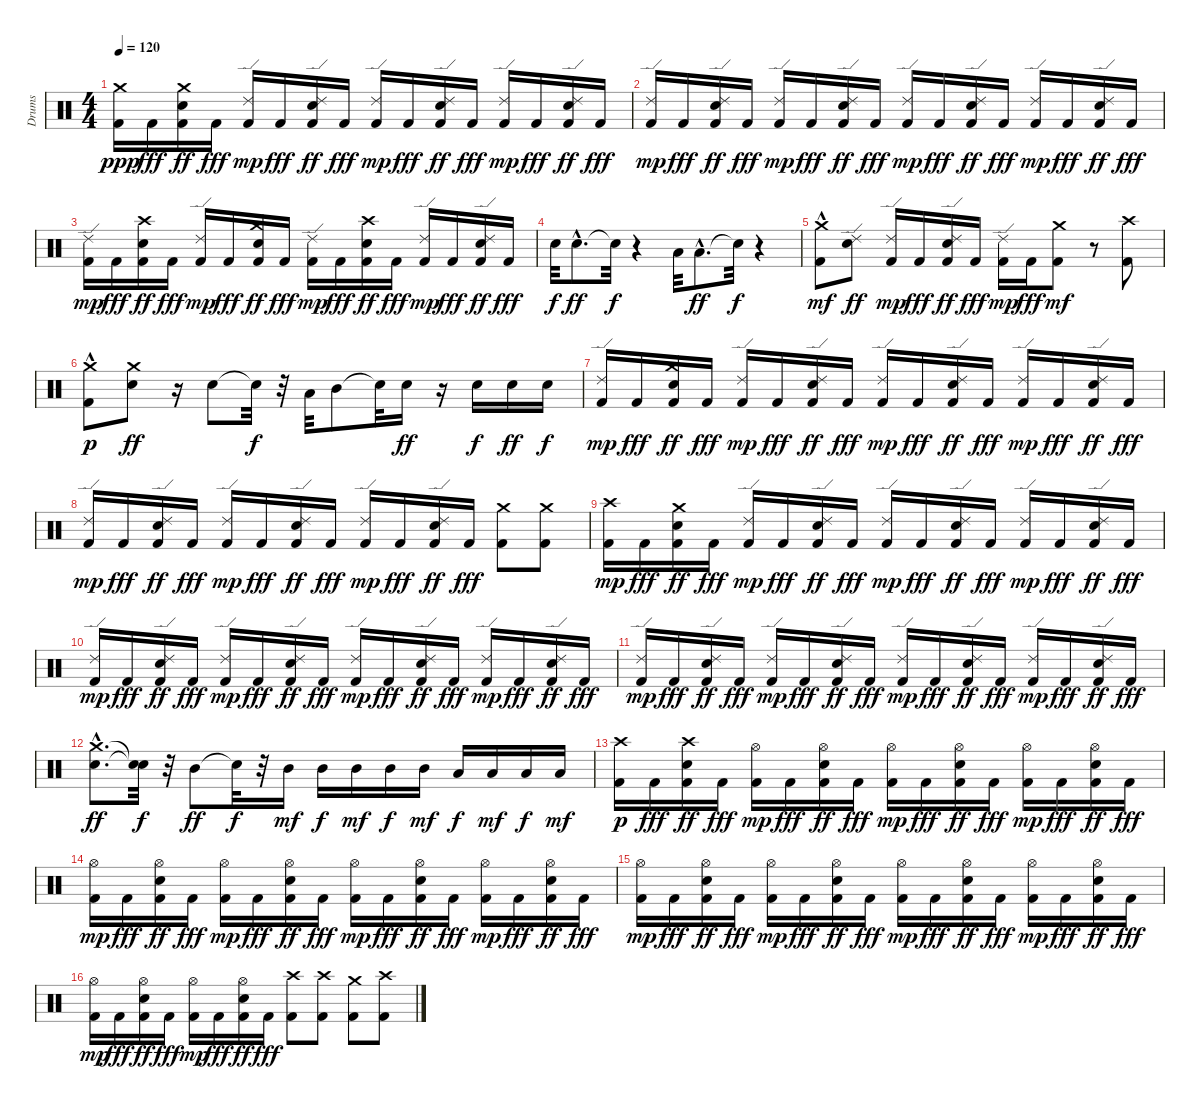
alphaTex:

\track ("Drums" "Drums") {instrument percussion}
\staff {score}
\articulation defaults
\ts (4 4)
\tempo 120
\clef neutral
\ks c
("Kick (hit) 2" "Crash medium (hit)").16{dy ppp} "Kick (hit) 2".16{dy fff} ("Kick (hit) 2" "Crash medium (hit)" "Snare (hit) 2").16{dy ff} "Kick (hit) 2".16{dy fff} ("Kick (hit) 2" "Ride (edge) 2").16{dy mp} "Kick (hit) 2".16{dy fff} ("Kick (hit) 2" "Ride (edge) 2" "Snare (hit) 2").16{dy ff} "Kick (hit) 2".16{dy fff} ("Kick (hit) 2" "Ride (edge) 2").16{dy mp} "Kick (hit) 2".16{dy fff} ("Kick (hit) 2" "Ride (edge) 2" "Snare (hit) 2").16{dy ff} "Kick (hit) 2".16{dy fff} ("Kick (hit) 2" "Ride (edge) 2").16{dy mp} "Kick (hit) 2".16{dy fff} ("Kick (hit) 2" "Ride (edge) 2" "Snare (hit) 2").16{dy ff} "Kick (hit) 2".16{dy fff} |
("Kick (hit) 2" "Ride (edge) 2").16{dy mp} "Kick (hit) 2".16{dy fff} ("Kick (hit) 2" "Ride (edge) 2" "Snare (hit) 2").16{dy ff} "Kick (hit) 2".16{dy fff} ("Kick (hit) 2" "Ride (edge) 2").16{dy mp} "Kick (hit) 2".16{dy fff} ("Kick (hit) 2" "Ride (edge) 2" "Snare (hit) 2").16{dy ff} "Kick (hit) 2".16{dy fff} ("Kick (hit) 2" "Ride (edge) 2").16{dy mp} "Kick (hit) 2".16{dy fff} ("Kick (hit) 2" "Ride (edge) 2" "Snare (hit) 2").16{dy ff} "Kick (hit) 2".16{dy fff} ("Kick (hit) 2" "Ride (edge) 2").16{dy mp} "Kick (hit) 2".16{dy fff} ("Kick (hit) 2" "Ride (edge) 2" "Snare (hit) 2").16{dy ff} "Kick (hit) 2".16{dy fff} |
("Kick (hit) 2" "Ride (edge) 2").16{dy mp} "Kick (hit) 2".16{dy fff} ("Kick (hit) 2" "Crash high (hit)" "Snare (hit) 2").16{dy ff} "Kick (hit) 2".16{dy fff} ("Kick (hit) 2" "Ride (edge) 2").16{dy mp} "Kick (hit) 2".16{dy fff} ("Kick (hit) 2" "Crash medium (hit)" "Snare (hit) 2").16{dy ff} "Kick (hit) 2".16{dy fff} ("Kick (hit) 2" "Ride (edge) 2").16{dy mp} "Kick (hit) 2".16{dy fff} ("Kick (hit) 2" "Crash high (hit)" "Snare (hit) 2").16{dy ff} "Kick (hit) 2".16{dy fff} ("Kick (hit) 2" "Ride (edge) 2").16{dy mp} "Kick (hit) 2".16{dy fff} ("Kick (hit) 2" "Ride (edge) 2" "Snare (hit) 2").16{dy ff} "Kick (hit) 2".16{dy fff} |
"Snare (hit) 2".32{dy f} "Snare (hit) 2"{hac}.8{d dy ff} "Snare (hit)"{t}.32{dy f} r.4 "Low Tom (hit)".32 "Low Tom (hit)"{hac}.8{d dy ff} "Snare (hit)"{t}.32{dy f} r.4 |
("Kick (hit) 2"{hac} "Crash medium (hit)").8{dy mf} ("Ride (edge) 2" "Snare (hit) 2").8{dy ff} ("Kick (hit) 2" "Ride (edge) 2").16{dy mp} "Kick (hit) 2".16{dy fff} ("Kick (hit) 2" "Ride (edge) 2" "Snare (hit) 2").16{dy ff} "Kick (hit) 2".16{dy fff} ("Kick (hit) 2" "Ride (edge) 2").16{dy mp} "Kick (hit) 2".16{dy fff} ("Kick (hit) 2" "Crash medium (hit)").8{dy mf} r.8 ("Kick (hit) 2" "Crash high (hit)").8 |
("Kick (hit) 2"{hac} "Crash medium (hit)").8{dy p} ("Crash medium (hit)" "Snare (hit) 2").8{dy ff} r.16 "Snare (hit) 2".8 "Snare (hit)"{t}.32{dy f} r.32 "Low Tom (hit)".32 "Mid Tom (hit)".8 "Snare (hit)"{t}.32 "Snare (hit) 2".16{dy ff} r.16 "Snare (hit) 2".16{dy f} "Snare (hit) 2".16{dy ff} "Snare (hit) 2".16{dy f} |
("Kick (hit) 2" "Ride (edge) 2").16{dy mp} "Kick (hit) 2".16{dy fff} ("Kick (hit) 2" "Crash medium (hit)" "Snare (hit) 2").16{dy ff} "Kick (hit) 2".16{dy fff} ("Kick (hit) 2" "Ride (edge) 2").16{dy mp} "Kick (hit) 2".16{dy fff} ("Kick (hit) 2" "Ride (edge) 2" "Snare (hit) 2").16{dy ff} "Kick (hit) 2".16{dy fff} ("Kick (hit) 2" "Ride (edge) 2").16{dy mp} "Kick (hit) 2".16{dy fff} ("Kick (hit) 2" "Ride (edge) 2" "Snare (hit) 2").16{dy ff} "Kick (hit) 2".16{dy fff} ("Kick (hit) 2" "Ride (edge) 2").16{dy mp} "Kick (hit) 2".16{dy fff} ("Kick (hit) 2" "Ride (edge) 2" "Snare (hit) 2").16{dy ff} "Kick (hit) 2".16{dy fff} |
("Kick (hit) 2" "Ride (edge) 2").16{dy mp} "Kick (hit) 2".16{dy fff} ("Kick (hit) 2" "Ride (edge) 2" "Snare (hit) 2").16{dy ff} "Kick (hit) 2".16{dy fff} ("Kick (hit) 2" "Ride (edge) 2").16{dy mp} "Kick (hit) 2".16{dy fff} ("Kick (hit) 2" "Ride (edge) 2" "Snare (hit) 2").16{dy ff} "Kick (hit) 2".16{dy fff} ("Kick (hit) 2" "Ride (edge) 2").16{dy mp} "Kick (hit) 2".16{dy fff} ("Kick (hit) 2" "Ride (edge) 2" "Snare (hit) 2").16{dy ff} "Kick (hit) 2".16{dy fff} ("Crash medium (hit)" "Kick (hit) 2").8 ("Crash medium (hit)" "Kick (hit) 2").8 |
("Kick (hit) 2" "Crash high (hit)").16{dy mp} "Kick (hit) 2".16{dy fff} ("Kick (hit) 2" "Crash medium (hit)" "Snare (hit) 2").16{dy ff} "Kick (hit) 2".16{dy fff} ("Kick (hit) 2" "Ride (edge) 2").16{dy mp} "Kick (hit) 2".16{dy fff} ("Kick (hit) 2" "Ride (edge) 2" "Snare (hit) 2").16{dy ff} "Kick (hit) 2".16{dy fff} ("Kick (hit) 2" "Ride (edge) 2").16{dy mp} "Kick (hit) 2".16{dy fff} ("Kick (hit) 2" "Ride (edge) 2" "Snare (hit) 2").16{dy ff} "Kick (hit) 2".16{dy fff} ("Kick (hit) 2" "Ride (edge) 2").16{dy mp} "Kick (hit) 2".16{dy fff} ("Kick (hit) 2" "Ride (edge) 2" "Snare (hit) 2").16{dy ff} "Kick (hit) 2".16{dy fff} |
("Kick (hit) 2" "Ride (edge) 2").16{dy mp} "Kick (hit) 2".16{dy fff} ("Kick (hit) 2" "Ride (edge) 2" "Snare (hit) 2").16{dy ff} "Kick (hit) 2".16{dy fff} ("Kick (hit) 2" "Ride (edge) 2").16{dy mp} "Kick (hit) 2".16{dy fff} ("Kick (hit) 2" "Ride (edge) 2" "Snare (hit) 2").16{dy ff} "Kick (hit) 2".16{dy fff} ("Kick (hit) 2" "Ride (edge) 2").16{dy mp} "Kick (hit) 2".16{dy fff} ("Kick (hit) 2" "Ride (edge) 2" "Snare (hit) 2").16{dy ff} "Kick (hit) 2".16{dy fff} ("Kick (hit) 2" "Ride (edge) 2").16{dy mp} "Kick (hit) 2".16{dy fff} ("Kick (hit) 2" "Ride (edge) 2" "Snare (hit) 2").16{dy ff} "Kick (hit) 2".16{dy fff} |
("Kick (hit) 2" "Ride (edge) 2").16{dy mp} "Kick (hit) 2".16{dy fff} ("Kick (hit) 2" "Ride (edge) 2" "Snare (hit) 2").16{dy ff} "Kick (hit) 2".16{dy fff} ("Kick (hit) 2" "Ride (edge) 2").16{dy mp} "Kick (hit) 2".16{dy fff} ("Kick (hit) 2" "Ride (edge) 2" "Snare (hit) 2").16{dy ff} "Kick (hit) 2".16{dy fff} ("Kick (hit) 2" "Ride (edge) 2").16{dy mp} "Kick (hit) 2".16{dy fff} ("Kick (hit) 2" "Ride (edge) 2" "Snare (hit) 2").16{dy ff} "Kick (hit) 2".16{dy fff} ("Kick (hit) 2" "Ride (edge) 2").16{dy mp} "Kick (hit) 2".16{dy fff} ("Kick (hit) 2" "Ride (edge) 2" "Snare (hit) 2").16{dy ff} "Kick (hit) 2".16{dy fff} |
("Crash medium (hit)"{hac} "Snare (hit) 2"{hac}).8{d dy ff} ("Snare (hit)"{t} "Snare (hit)"{t}).32{dy f} r.32 "Mid Tom (hit)".8{dy ff} "Snare (hit)"{t}.32{dy f} r.32 "Mid Tom (hit)".16{dy mf} "Mid Tom (hit)".16{dy f} "Mid Tom (hit)".16{dy mf} "Mid Tom (hit)".16{dy f} "Mid Tom (hit)".16{dy mf} "Low Tom (hit)".16{dy f} "Low Tom (hit)".16{dy mf} "Low Tom (hit)".16{dy f} "Low Tom (hit)".16{dy mf} |
("Kick (hit) 2" "Crash high (hit)").16{dy p} "Kick (hit) 2".16{dy fff} ("Kick (hit) 2" "Crash high (hit)" "Snare (hit) 2").16{dy ff} "Kick (hit) 2".16{dy fff} ("Kick (hit) 2" "Hi-Hat (open)").16{dy mp} "Kick (hit) 2".16{dy fff} ("Kick (hit) 2" "Hi-Hat (open)" "Snare (hit) 2").16{dy ff} "Kick (hit) 2".16{dy fff} ("Kick (hit) 2" "Hi-Hat (open)").16{dy mp} "Kick (hit) 2".16{dy fff} ("Kick (hit) 2" "Hi-Hat (open)" "Snare (hit) 2").16{dy ff} "Kick (hit) 2".16{dy fff} ("Kick (hit) 2" "Hi-Hat (open)").16{dy mp} "Kick (hit) 2".16{dy fff} ("Kick (hit) 2" "Hi-Hat (open)" "Snare (hit) 2").16{dy ff} "Kick (hit) 2".16{dy fff} |
("Kick (hit) 2" "Hi-Hat (open)").16{dy mp} "Kick (hit) 2".16{dy fff} ("Kick (hit) 2" "Hi-Hat (open)" "Snare (hit) 2").16{dy ff} "Kick (hit) 2".16{dy fff} ("Kick (hit) 2" "Hi-Hat (open)").16{dy mp} "Kick (hit) 2".16{dy fff} ("Kick (hit) 2" "Hi-Hat (open)" "Snare (hit) 2").16{dy ff} "Kick (hit) 2".16{dy fff} ("Kick (hit) 2" "Hi-Hat (open)").16{dy mp} "Kick (hit) 2".16{dy fff} ("Kick (hit) 2" "Hi-Hat (open)" "Snare (hit) 2").16{dy ff} "Kick (hit) 2".16{dy fff} ("Kick (hit) 2" "Hi-Hat (open)").16{dy mp} "Kick (hit) 2".16{dy fff} ("Kick (hit) 2" "Hi-Hat (open)" "Snare (hit) 2").16{dy ff} "Kick (hit) 2".16{dy fff} |
("Kick (hit) 2" "Hi-Hat (open)").16{dy mp} "Kick (hit) 2".16{dy fff} ("Kick (hit) 2" "Hi-Hat (open)" "Snare (hit) 2").16{dy ff} "Kick (hit) 2".16{dy fff} ("Kick (hit) 2" "Hi-Hat (open)").16{dy mp} "Kick (hit) 2".16{dy fff} ("Kick (hit) 2" "Hi-Hat (open)" "Snare (hit) 2").16{dy ff} "Kick (hit) 2".16{dy fff} ("Kick (hit) 2" "Hi-Hat (open)").16{dy mp} "Kick (hit) 2".16{dy fff} ("Kick (hit) 2" "Hi-Hat (open)" "Snare (hit) 2").16{dy ff} "Kick (hit) 2".16{dy fff} ("Kick (hit) 2" "Hi-Hat (open)").16{dy mp} "Kick (hit) 2".16{dy fff} ("Kick (hit) 2" "Hi-Hat (open)" "Snare (hit) 2").16{dy ff} "Kick (hit) 2".16{dy fff} |
("Kick (hit) 2" "Hi-Hat (open)").16{dy mp} "Kick (hit) 2".16{dy fff} ("Kick (hit) 2" "Hi-Hat (open)" "Snare (hit) 2").16{dy ff} "Kick (hit) 2".16{dy fff} ("Kick (hit) 2" "Hi-Hat (open)").16{dy mp} "Kick (hit) 2".16{dy fff} ("Kick (hit) 2" "Hi-Hat (open)" "Snare (hit) 2").16{dy ff} "Kick (hit) 2".16{dy fff} ("Crash high (hit)" "Kick (hit) 2").8 ("Crash high (hit)" "Kick (hit) 2").8 ("Crash medium (hit)" "Kick (hit) 2").8 ("Crash high (hit)" "Kick (hit) 2").8
